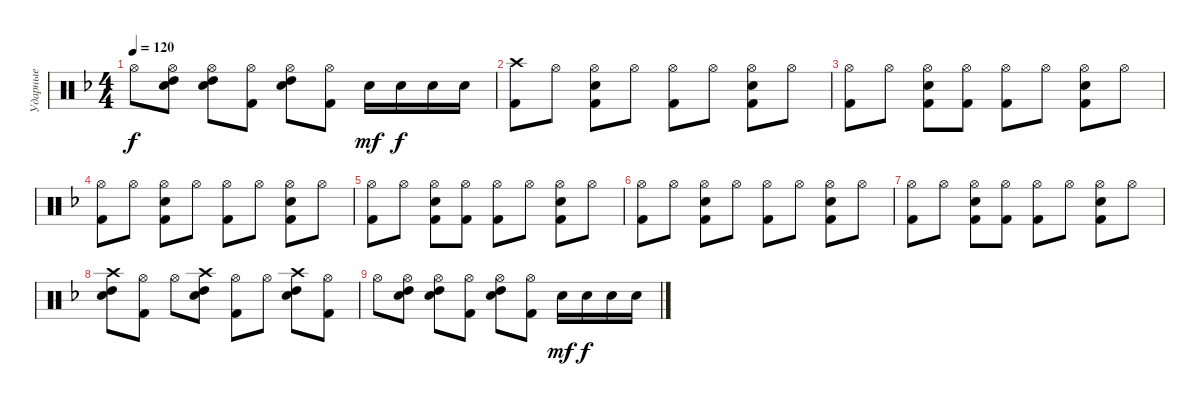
\track ("Ударные" "Ударные") {instrument percussion}
\staff {score}
\articulation defaults
\ts (4 4)
\tempo 120
\clef neutral
\ks f "Hi-Hat (open)".8{dy f}
("Electric Snare (hit)" "High Tom (hit)" "Hi-Hat (open)").8 ("Electric Snare (hit)" "High Tom (hit)" "Hi-Hat (open)").8 ("Kick (hit) 2" "Hi-Hat (open)").8 ("Electric Snare (hit)" "High Tom (hit)" "Hi-Hat (open)").8 ("Kick (hit) 2" "Hi-Hat (open)").8 "Electric Snare (hit)".16{dy mf} "Electric Snare (hit)".16{dy f} "Electric Snare (hit)".16 "Electric Snare (hit)".16 |
("Kick (hit) 2" "Crash high (hit)").8{volume 4} "Hi-Hat (open)".8 ("Kick (hit) 2" "Electric Snare (hit)" "Hi-Hat (open)").8 "Hi-Hat (open)".8 ("Kick (hit) 2" "Hi-Hat (open)").8 "Hi-Hat (open)".8 ("Kick (hit) 2" "Electric Snare (hit)" "Hi-Hat (open)").8 "Hi-Hat (open)".8 |
("Kick (hit) 2" "Hi-Hat (open)").8 "Hi-Hat (open)".8 ("Kick (hit) 2" "Electric Snare (hit)" "Hi-Hat (open)").8 ("Kick (hit) 2" "Hi-Hat (open)").8 ("Kick (hit) 2" "Hi-Hat (open)").8 "Hi-Hat (open)".8 ("Kick (hit) 2" "Electric Snare (hit)" "Hi-Hat (open)").8 "Hi-Hat (open)".8 |
("Kick (hit) 2" "Hi-Hat (open)").8 "Hi-Hat (open)".8 ("Kick (hit) 2" "Electric Snare (hit)" "Hi-Hat (open)").8 "Hi-Hat (open)".8 ("Kick (hit) 2" "Hi-Hat (open)").8 "Hi-Hat (open)".8 ("Kick (hit) 2" "Electric Snare (hit)" "Hi-Hat (open)").8 "Hi-Hat (open)".8 |
("Kick (hit) 2" "Hi-Hat (open)").8 "Hi-Hat (open)".8 ("Kick (hit) 2" "Electric Snare (hit)" "Hi-Hat (open)").8 ("Kick (hit) 2" "Hi-Hat (open)").8 ("Kick (hit) 2" "Hi-Hat (open)").8 "Hi-Hat (open)".8 ("Kick (hit) 2" "Electric Snare (hit)" "Hi-Hat (open)").8 "Hi-Hat (open)".8 |
("Kick (hit) 2" "Hi-Hat (open)").8{volume 0} "Hi-Hat (open)".8 ("Kick (hit) 2" "Electric Snare (hit)" "Hi-Hat (open)").8 "Hi-Hat (open)".8 ("Kick (hit) 2" "Hi-Hat (open)").8 "Hi-Hat (open)".8 ("Kick (hit) 2" "Electric Snare (hit)" "Hi-Hat (open)").8 "Hi-Hat (open)".8 |
("Kick (hit) 2" "Hi-Hat (open)").8 "Hi-Hat (open)".8 ("Kick (hit) 2" "Electric Snare (hit)" "Hi-Hat (open)").8 ("Kick (hit) 2" "Hi-Hat (open)").8 ("Kick (hit) 2" "Hi-Hat (open)").8 "Hi-Hat (open)".8 ("Kick (hit) 2" "Electric Snare (hit)" "Hi-Hat (open)").8 "Hi-Hat (open)".8 |
("Electric Snare (hit)" "High Tom (hit)" "Crash high (hit)").8 ("Kick (hit) 2" "Hi-Hat (open)").8 "Hi-Hat (open)".8 ("Electric Snare (hit)" "High Tom (hit)" "Crash high (hit)").8 ("Kick (hit) 2" "Hi-Hat (open)").8 "Hi-Hat (open)".8 ("Electric Snare (hit)" "High Tom (hit)" "Crash high (hit)").8 ("Kick (hit) 2" "Hi-Hat (open)").8 |
"Hi-Hat (open)".8 ("Electric Snare (hit)" "High Tom (hit)" "Hi-Hat (open)").8 ("Electric Snare (hit)" "High Tom (hit)" "Hi-Hat (open)").8 ("Kick (hit) 2" "Hi-Hat (open)").8 ("Electric Snare (hit)" "High Tom (hit)" "Hi-Hat (open)").8 ("Kick (hit) 2" "Hi-Hat (open)").8 "Electric Snare (hit)".16{dy mf} "Electric Snare (hit)".16{dy f} "Electric Snare (hit)".16 "Electric Snare (hit)".16
